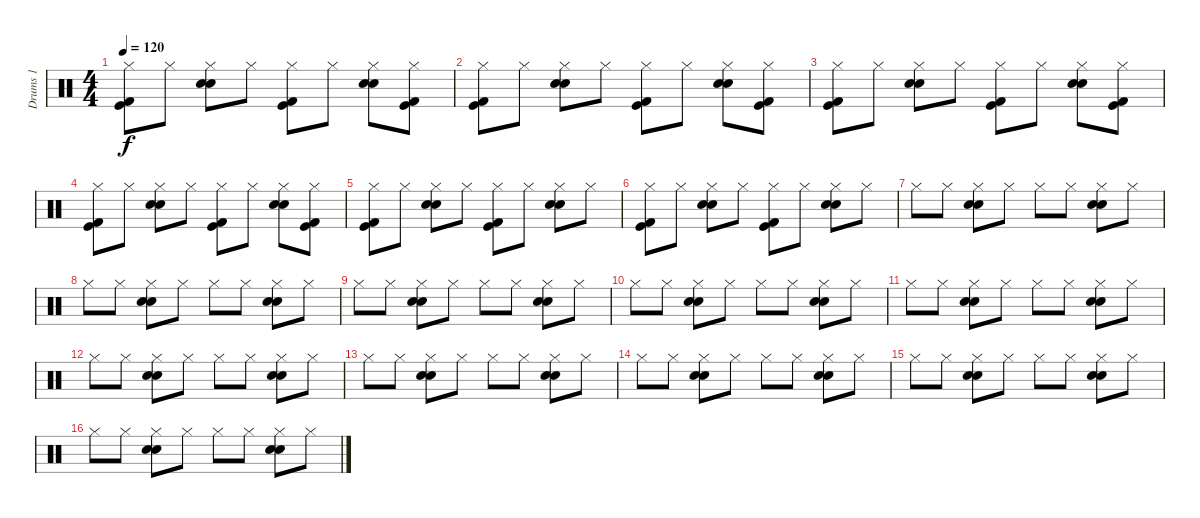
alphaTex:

\track ("Drums 1" "Drums 1") {instrument percussion}
\staff {score}
\articulation defaults
\ts (4 4)
\tempo 120
\clef neutral
\ks c
("Hi-Hat (closed)" "Kick (hit) 2" "Kick (hit)").8{dy f} "Hi-Hat (closed)".8 ("Hi-Hat (closed)" "Electric Snare (hit)" "Snare (hit) 2").8 "Hi-Hat (closed)".8 ("Hi-Hat (closed)" "Kick (hit) 2" "Kick (hit)").8 "Hi-Hat (closed)".8 ("Hi-Hat (closed)" "Electric Snare (hit)" "Snare (hit) 2").8 ("Hi-Hat (closed)" "Kick (hit) 2" "Kick (hit)").8 |
("Hi-Hat (closed)" "Kick (hit) 2" "Kick (hit)").8 "Hi-Hat (closed)".8 ("Hi-Hat (closed)" "Electric Snare (hit)" "Snare (hit) 2").8 "Hi-Hat (closed)".8 ("Hi-Hat (closed)" "Kick (hit) 2" "Kick (hit)").8 "Hi-Hat (closed)".8 ("Hi-Hat (closed)" "Electric Snare (hit)" "Snare (hit) 2").8 ("Hi-Hat (closed)" "Kick (hit) 2" "Kick (hit)").8 |
("Hi-Hat (closed)" "Kick (hit) 2" "Kick (hit)").8 "Hi-Hat (closed)".8 ("Hi-Hat (closed)" "Electric Snare (hit)" "Snare (hit) 2").8 "Hi-Hat (closed)".8 ("Hi-Hat (closed)" "Kick (hit) 2" "Kick (hit)").8 "Hi-Hat (closed)".8 ("Hi-Hat (closed)" "Electric Snare (hit)" "Snare (hit) 2").8 ("Hi-Hat (closed)" "Kick (hit) 2" "Kick (hit)").8 |
("Hi-Hat (closed)" "Kick (hit) 2" "Kick (hit)").8 "Hi-Hat (closed)".8 ("Hi-Hat (closed)" "Electric Snare (hit)" "Snare (hit) 2").8 "Hi-Hat (closed)".8 ("Hi-Hat (closed)" "Kick (hit) 2" "Kick (hit)").8 "Hi-Hat (closed)".8 ("Hi-Hat (closed)" "Electric Snare (hit)" "Snare (hit) 2").8 ("Hi-Hat (closed)" "Kick (hit) 2" "Kick (hit)").8 |
("Hi-Hat (closed)" "Kick (hit) 2" "Kick (hit)").8 "Hi-Hat (closed)".8 ("Hi-Hat (closed)" "Electric Snare (hit)" "Snare (hit) 2").8 "Hi-Hat (closed)".8 ("Hi-Hat (closed)" "Kick (hit) 2" "Kick (hit)").8 "Hi-Hat (closed)".8 ("Hi-Hat (closed)" "Electric Snare (hit)" "Snare (hit) 2").8 "Hi-Hat (closed)".8 |
("Hi-Hat (closed)" "Kick (hit) 2" "Kick (hit)").8 "Hi-Hat (closed)".8 ("Hi-Hat (closed)" "Electric Snare (hit)" "Snare (hit) 2").8 "Hi-Hat (closed)".8 ("Hi-Hat (closed)" "Kick (hit) 2" "Kick (hit)").8 "Hi-Hat (closed)".8 ("Hi-Hat (closed)" "Electric Snare (hit)" "Snare (hit) 2").8 "Hi-Hat (closed)".8 |
"Hi-Hat (closed)".8 "Hi-Hat (closed)".8 ("Hi-Hat (closed)" "Electric Snare (hit)" "Snare (hit) 2").8 "Hi-Hat (closed)".8 "Hi-Hat (closed)".8 "Hi-Hat (closed)".8 ("Hi-Hat (closed)" "Electric Snare (hit)" "Snare (hit) 2").8 "Hi-Hat (closed)".8 |
"Hi-Hat (closed)".8 "Hi-Hat (closed)".8 ("Hi-Hat (closed)" "Electric Snare (hit)" "Snare (hit) 2").8 "Hi-Hat (closed)".8 "Hi-Hat (closed)".8 "Hi-Hat (closed)".8 ("Hi-Hat (closed)" "Electric Snare (hit)" "Snare (hit) 2").8 "Hi-Hat (closed)".8 |
"Hi-Hat (closed)".8 "Hi-Hat (closed)".8 ("Hi-Hat (closed)" "Electric Snare (hit)" "Snare (hit) 2").8 "Hi-Hat (closed)".8 "Hi-Hat (closed)".8 "Hi-Hat (closed)".8 ("Hi-Hat (closed)" "Electric Snare (hit)" "Snare (hit) 2").8 "Hi-Hat (closed)".8 |
"Hi-Hat (closed)".8 "Hi-Hat (closed)".8 ("Hi-Hat (closed)" "Electric Snare (hit)" "Snare (hit) 2").8 "Hi-Hat (closed)".8 "Hi-Hat (closed)".8 "Hi-Hat (closed)".8 ("Hi-Hat (closed)" "Electric Snare (hit)" "Snare (hit) 2").8 "Hi-Hat (closed)".8 |
"Hi-Hat (closed)".8 "Hi-Hat (closed)".8 ("Hi-Hat (closed)" "Electric Snare (hit)" "Snare (hit) 2").8 "Hi-Hat (closed)".8 "Hi-Hat (closed)".8 "Hi-Hat (closed)".8 ("Hi-Hat (closed)" "Electric Snare (hit)" "Snare (hit) 2").8 "Hi-Hat (closed)".8 |
"Hi-Hat (closed)".8 "Hi-Hat (closed)".8 ("Hi-Hat (closed)" "Electric Snare (hit)" "Snare (hit) 2").8 "Hi-Hat (closed)".8 "Hi-Hat (closed)".8 "Hi-Hat (closed)".8 ("Hi-Hat (closed)" "Electric Snare (hit)" "Snare (hit) 2").8 "Hi-Hat (closed)".8 |
"Hi-Hat (closed)".8 "Hi-Hat (closed)".8 ("Hi-Hat (closed)" "Electric Snare (hit)" "Snare (hit) 2").8 "Hi-Hat (closed)".8 "Hi-Hat (closed)".8 "Hi-Hat (closed)".8 ("Hi-Hat (closed)" "Electric Snare (hit)" "Snare (hit) 2").8 "Hi-Hat (closed)".8 |
"Hi-Hat (closed)".8 "Hi-Hat (closed)".8 ("Hi-Hat (closed)" "Electric Snare (hit)" "Snare (hit) 2").8 "Hi-Hat (closed)".8 "Hi-Hat (closed)".8 "Hi-Hat (closed)".8 ("Hi-Hat (closed)" "Electric Snare (hit)" "Snare (hit) 2").8 "Hi-Hat (closed)".8 |
"Hi-Hat (closed)".8 "Hi-Hat (closed)".8 ("Hi-Hat (closed)" "Electric Snare (hit)" "Snare (hit) 2").8 "Hi-Hat (closed)".8 "Hi-Hat (closed)".8 "Hi-Hat (closed)".8 ("Hi-Hat (closed)" "Electric Snare (hit)" "Snare (hit) 2").8 "Hi-Hat (closed)".8 |
"Hi-Hat (closed)".8 "Hi-Hat (closed)".8 ("Hi-Hat (closed)" "Electric Snare (hit)" "Snare (hit) 2").8 "Hi-Hat (closed)".8 "Hi-Hat (closed)".8 "Hi-Hat (closed)".8 ("Hi-Hat (closed)" "Electric Snare (hit)" "Snare (hit) 2").8 "Hi-Hat (closed)".8
